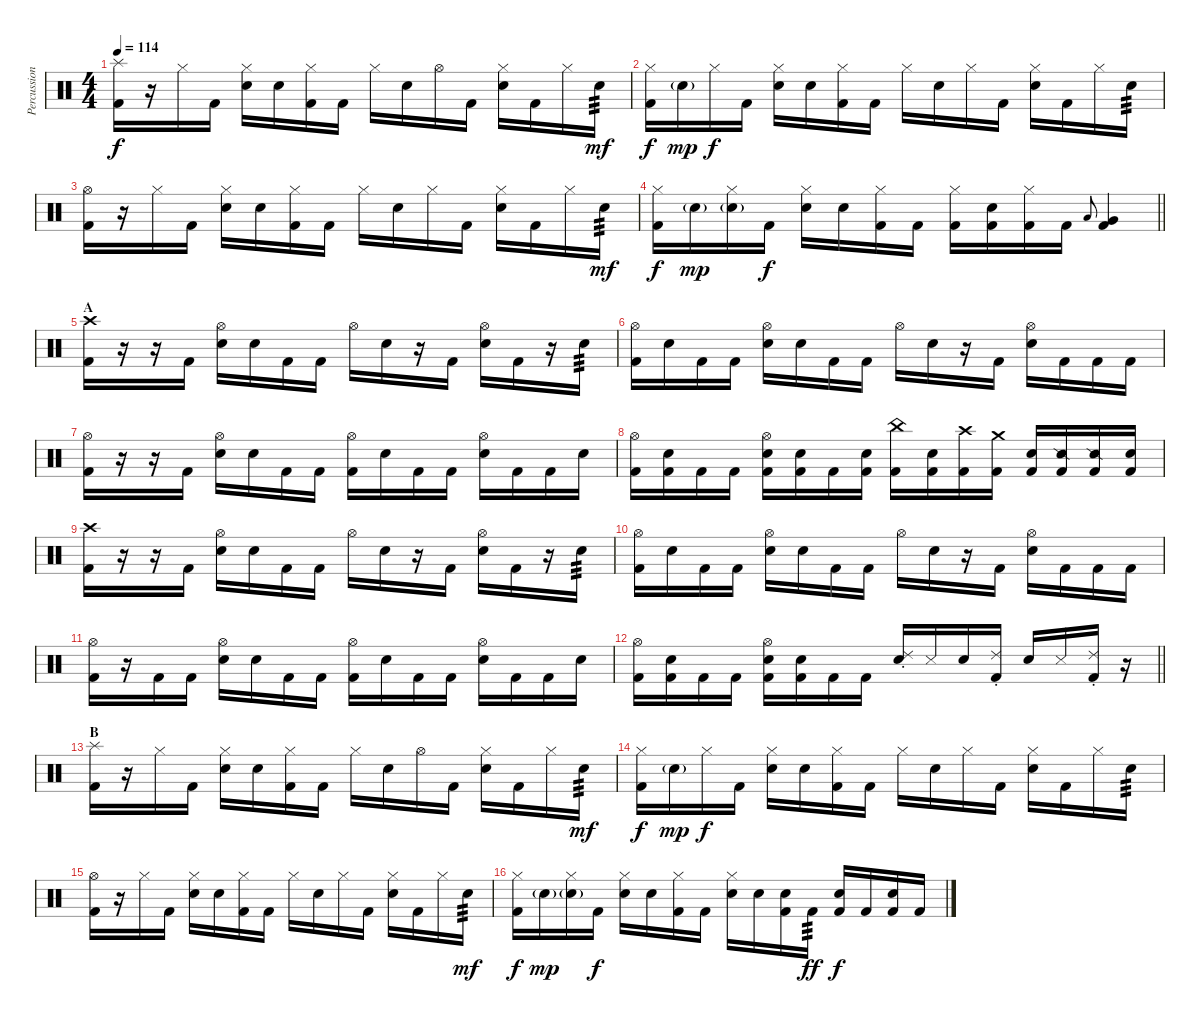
\track ("Percussion" "Percussion") {instrument percussion}
\staff {score}
\articulation defaults
\ts (4 4)
\tempo 114
\clef neutral
\ks c
("Splash (hit)" "Kick (hit) 2").16{dy f} r.16 "Hi-Hat (closed)".16 "Kick (hit) 2".16 ("Hi-Hat (closed)" "Snare (hit) 2").16 "Snare (hit) 2".16 ("Hi-Hat (closed)" "Kick (hit) 2").16 "Kick (hit) 2".16 "Hi-Hat (closed)".16 "Snare (hit) 2".16 "Hi-Hat (open)".16 "Kick (hit) 2".16 ("Hi-Hat (closed)" "Snare (hit) 2").16 "Kick (hit) 2".16 "Hi-Hat (closed)".16 "Snare (hit) 2".16{tp 3 dy mf} |
("Hi-Hat (closed)" "Kick (hit) 2").16{dy f} "Snare (hit) 2"{g}.16{dy mp} "Hi-Hat (closed)".16{dy f} "Kick (hit) 2".16 ("Hi-Hat (closed)" "Snare (hit) 2").16 "Snare (hit) 2".16 ("Hi-Hat (closed)" "Kick (hit) 2").16 "Kick (hit) 2".16 "Hi-Hat (closed)".16 "Snare (hit) 2".16 "Hi-Hat (closed)".16 "Kick (hit) 2".16 ("Hi-Hat (closed)" "Snare (hit) 2").16 "Kick (hit) 2".16 "Hi-Hat (closed)".16 "Snare (hit) 2".16{tp 3} |
("Hi-Hat (open)" "Kick (hit) 2").16 r.16 "Hi-Hat (closed)".16 "Kick (hit) 2".16 ("Hi-Hat (closed)" "Snare (hit) 2").16 "Snare (hit) 2".16 ("Hi-Hat (closed)" "Kick (hit) 2").16 "Kick (hit) 2".16 "Hi-Hat (closed)".16 "Snare (hit) 2".16 "Hi-Hat (closed)".16 "Kick (hit) 2".16 ("Hi-Hat (closed)" "Snare (hit) 2").16 "Kick (hit) 2".16 "Hi-Hat (closed)".16 "Snare (hit) 2".16{tp 3 dy mf} |
\barLineRight lightlight
("Hi-Hat (closed)" "Kick (hit) 2").16{dy f} "Snare (hit) 2"{g}.16{dy mp} ("Hi-Hat (closed)" "Snare (hit) 2"{g}).16 "Kick (hit) 2".16{dy f} ("Hi-Hat (closed)" "Snare (hit) 2").16 "Snare (hit) 2".16 ("Hi-Hat (closed)" "Kick (hit) 2").16 "Kick (hit) 2".16 ("Hi-Hat (closed)" "Kick (hit) 2").16 ("Snare (hit) 2" "Kick (hit) 2").16 ("Hi-Hat (closed)" "Kick (hit) 2").16 "Kick (hit) 2".16 "Low Tom (hit)".8{gr onbeat} ("Very Low Tom (hit)" "Kick (hit) 2").4 |
\section ("" "A")
("Crash high (hit)" "Kick (hit) 2").16 r.16 r.16 "Kick (hit) 2".16 ("Hi-Hat (open)" "Snare (hit) 2").16 "Snare (hit) 2".16 "Kick (hit) 2".16 "Kick (hit) 2".16 "Hi-Hat (open)".16 "Snare (hit) 2".16 r.16 "Kick (hit) 2".16 ("Hi-Hat (open)" "Snare (hit) 2").16 "Kick (hit) 2".16 r.16 "Snare (hit) 2".16{tp 3} |
("Hi-Hat (open)" "Kick (hit) 2").16 "Snare (hit) 2".16 "Kick (hit) 2".16 "Kick (hit) 2".16 ("Hi-Hat (open)" "Snare (hit) 2").16 "Snare (hit) 2".16 "Kick (hit) 2".16 "Kick (hit) 2".16 "Hi-Hat (open)".16 "Snare (hit) 2".16 r.16 "Kick (hit) 2".16 ("Hi-Hat (open)" "Snare (hit) 2").16 "Kick (hit) 2".16 "Kick (hit) 2".16 "Kick (hit) 2".16 |
("Hi-Hat (open)" "Kick (hit) 2").16 r.16 r.16 "Kick (hit) 2".16 ("Hi-Hat (open)" "Snare (hit) 2").16 "Snare (hit) 2".16 "Kick (hit) 2".16 "Kick (hit) 2".16 ("Hi-Hat (open)" "Kick (hit) 2").16 "Snare (hit) 2".16 "Kick (hit) 2".16 "Kick (hit) 2".16 ("Hi-Hat (open)" "Snare (hit) 2").16 "Kick (hit) 2".16 "Kick (hit) 2".16 "Snare (hit) 2".16 |
("Hi-Hat (open)" "Kick (hit) 2").16 ("Snare (hit) 2" "Kick (hit) 2").16 "Kick (hit) 2".16 "Kick (hit) 2".16 ("Hi-Hat (open)" "Snare (hit) 2" "Kick (hit) 2").16 ("Snare (hit) 2" "Kick (hit) 2").16 "Kick (hit) 2".16 ("Snare (hit) 2" "Kick (hit) 2").16 ("China (hit)" "Kick (hit) 2").16 ("Snare (hit) 2" "Kick (hit) 2").16 ("Crash high (hit)" "Kick (hit) 2").16 ("Crash medium (hit)" "Kick (hit) 2").16 ("Snare (hit) 2" "Kick (hit) 2").16 ("Snare (side stick) 2" "Kick (hit) 2").16 ("Snare (side stick) 2" "Kick (hit) 2").16 ("Snare (hit) 2" "Kick (hit) 2").16 |
("Crash high (hit)" "Kick (hit) 2").16 r.16 r.16 "Kick (hit) 2".16 ("Hi-Hat (open)" "Snare (hit) 2").16 "Snare (hit) 2".16 "Kick (hit) 2".16 "Kick (hit) 2".16 "Hi-Hat (open)".16 "Snare (hit) 2".16 r.16 "Kick (hit) 2".16 ("Hi-Hat (open)" "Snare (hit) 2").16 "Kick (hit) 2".16 r.16 "Snare (hit) 2".16{tp 3} |
("Hi-Hat (open)" "Kick (hit) 2").16 "Snare (hit) 2".16 "Kick (hit) 2".16 "Kick (hit) 2".16 ("Hi-Hat (open)" "Snare (hit) 2").16 "Snare (hit) 2".16 "Kick (hit) 2".16 "Kick (hit) 2".16 "Hi-Hat (open)".16 "Snare (hit) 2".16 r.16 "Kick (hit) 2".16 ("Hi-Hat (open)" "Snare (hit) 2").16 "Kick (hit) 2".16 "Kick (hit) 2".16 "Kick (hit) 2".16 |
("Hi-Hat (open)" "Kick (hit) 2").16 r.16 "Kick (hit) 2".16 "Kick (hit) 2".16 ("Hi-Hat (open)" "Snare (hit) 2").16 "Snare (hit) 2".16 "Kick (hit) 2".16 "Kick (hit) 2".16 ("Hi-Hat (open)" "Kick (hit) 2").16 "Snare (hit) 2".16 "Kick (hit) 2".16 "Kick (hit) 2".16 ("Hi-Hat (open)" "Snare (hit) 2").16 "Kick (hit) 2".16 "Kick (hit) 2".16 "Snare (hit) 2".16 |
\barLineRight lightlight
("Hi-Hat (open)" "Kick (hit) 2").16 ("Snare (hit) 2" "Kick (hit) 2").16 "Kick (hit) 2".16 "Kick (hit) 2".16 ("Hi-Hat (open)" "Snare (hit) 2" "Kick (hit) 2").16 ("Snare (hit) 2" "Kick (hit) 2").16 "Kick (hit) 2".16 "Kick (hit) 2".16 ("Ride (choke) 2" "Snare (hit) 2").16 "Metronome (hit)".16 "Snare (hit) 2".16 ("Ride (choke) 2" "Kick (hit) 2").16 "Snare (hit) 2".16 "Metronome (hit)".16 ("Ride (choke) 2" "Kick (hit) 2").16 r.16 |
\section ("" "B")
("Splash (hit)" "Kick (hit) 2").16 r.16 "Hi-Hat (closed)".16 "Kick (hit) 2".16 ("Hi-Hat (closed)" "Snare (hit) 2").16 "Snare (hit) 2".16 ("Hi-Hat (closed)" "Kick (hit) 2").16 "Kick (hit) 2".16 "Hi-Hat (closed)".16 "Snare (hit) 2".16 "Hi-Hat (open)".16 "Kick (hit) 2".16 ("Hi-Hat (closed)" "Snare (hit) 2").16 "Kick (hit) 2".16 "Hi-Hat (closed)".16 "Snare (hit) 2".16{tp 3 dy mf} |
("Hi-Hat (closed)" "Kick (hit) 2").16{dy f} "Snare (hit) 2"{g}.16{dy mp} "Hi-Hat (closed)".16{dy f} "Kick (hit) 2".16 ("Hi-Hat (closed)" "Snare (hit) 2").16 "Snare (hit) 2".16 ("Hi-Hat (closed)" "Kick (hit) 2").16 "Kick (hit) 2".16 "Hi-Hat (closed)".16 "Snare (hit) 2".16 "Hi-Hat (closed)".16 "Kick (hit) 2".16 ("Hi-Hat (closed)" "Snare (hit) 2").16 "Kick (hit) 2".16 "Hi-Hat (closed)".16 "Snare (hit) 2".16{tp 3} |
("Hi-Hat (open)" "Kick (hit) 2").16 r.16 "Hi-Hat (closed)".16 "Kick (hit) 2".16 ("Hi-Hat (closed)" "Snare (hit) 2").16 "Snare (hit) 2".16 ("Hi-Hat (closed)" "Kick (hit) 2").16 "Kick (hit) 2".16 "Hi-Hat (closed)".16 "Snare (hit) 2".16 "Hi-Hat (closed)".16 "Kick (hit) 2".16 ("Hi-Hat (closed)" "Snare (hit) 2").16 "Kick (hit) 2".16 "Hi-Hat (closed)".16 "Snare (hit) 2".16{tp 3 dy mf} |
("Hi-Hat (closed)" "Kick (hit) 2").16{dy f} "Snare (hit) 2"{g}.16{dy mp} ("Hi-Hat (closed)" "Snare (hit) 2"{g}).16 "Kick (hit) 2".16{dy f} ("Hi-Hat (closed)" "Snare (hit) 2").16 "Snare (hit) 2".16 ("Hi-Hat (closed)" "Kick (hit) 2").16 "Kick (hit) 2".16 ("Hi-Hat (closed)" "Snare (hit) 2").16 "Snare (hit) 2".16 ("Snare (hit)" "Kick (hit) 2").16 "Kick (hit) 2".16{tp 3 dy ff} ("Snare (hit)" "Kick (hit) 2").16{dy f} "Kick (hit) 2".16 ("Snare (hit)" "Kick (hit) 2").16 "Kick (hit) 2".16
